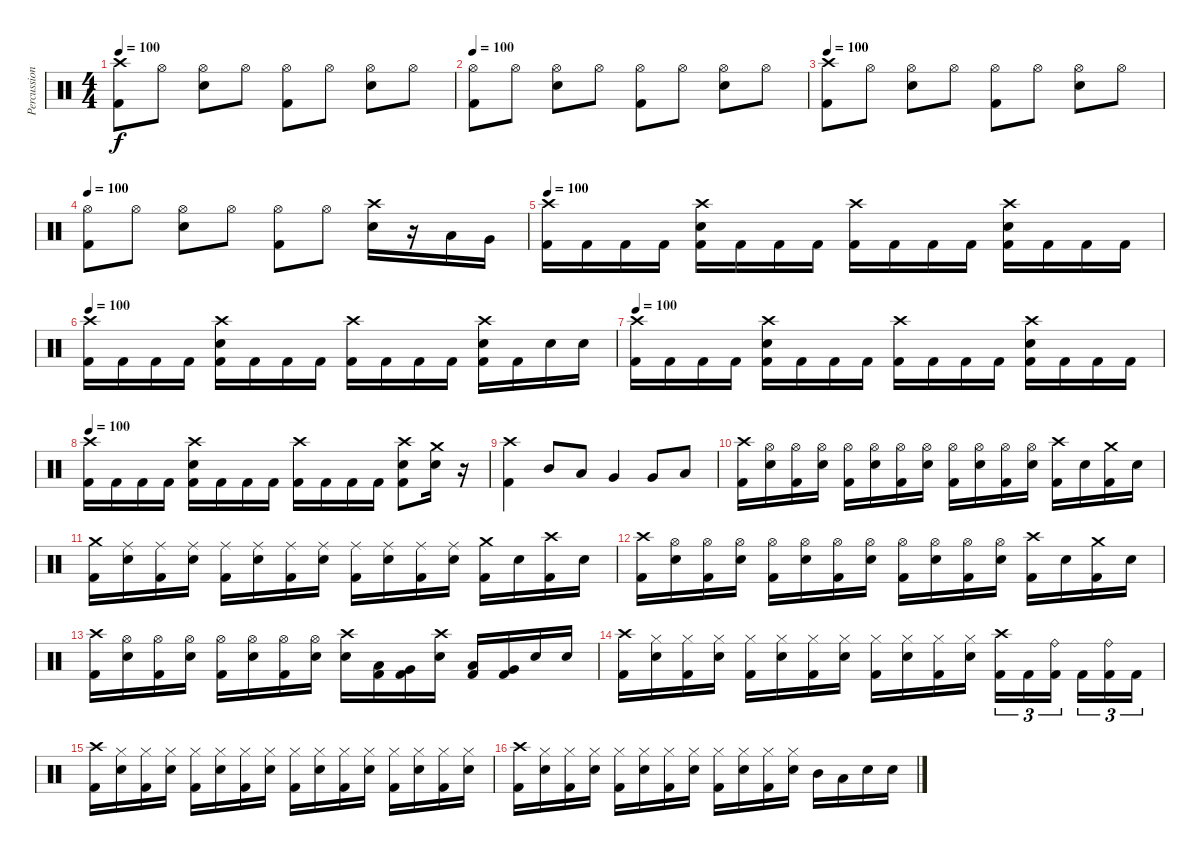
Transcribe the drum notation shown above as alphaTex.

\track ("Percussion" "Percussion") {instrument percussion}
\staff {score}
\articulation defaults
\ts (4 4)
\tempo 100
\clef neutral
\ks c
("Crash high (hit)" "Kick (hit) 2").8{dy f} "Hi-Hat (open)".8 ("Hi-Hat (open)" "Snare (hit) 2").8 "Hi-Hat (open)".8 ("Hi-Hat (open)" "Kick (hit) 2").8 "Hi-Hat (open)".8 ("Hi-Hat (open)" "Snare (hit) 2").8 "Hi-Hat (open)".8 |
\tempo 100
("Hi-Hat (open)" "Kick (hit) 2").8 "Hi-Hat (open)".8 ("Hi-Hat (open)" "Snare (hit) 2").8 "Hi-Hat (open)".8 ("Hi-Hat (open)" "Kick (hit) 2").8 "Hi-Hat (open)".8 ("Hi-Hat (open)" "Snare (hit) 2").8 "Hi-Hat (open)".8 |
\tempo 100
("Crash high (hit)" "Kick (hit) 2").8 "Hi-Hat (open)".8 ("Hi-Hat (open)" "Snare (hit) 2").8 "Hi-Hat (open)".8 ("Hi-Hat (open)" "Kick (hit) 2").8 "Hi-Hat (open)".8 ("Hi-Hat (open)" "Snare (hit) 2").8 "Hi-Hat (open)".8 |
\tempo 100
("Hi-Hat (open)" "Kick (hit) 2").8 "Hi-Hat (open)".8 ("Hi-Hat (open)" "Snare (hit) 2").8 "Hi-Hat (open)".8 ("Hi-Hat (open)" "Kick (hit) 2").8 "Hi-Hat (open)".8 ("Crash high (hit)" "Snare (hit) 2").16 r.16 "Low Tom (hit)".16 "Very Low Tom (hit)".16 |
\tempo 100
("Crash high (hit)" "Kick (hit) 2").16 "Kick (hit) 2".16 "Kick (hit) 2".16 "Kick (hit) 2".16 ("Crash high (hit)" "Snare (hit) 2" "Kick (hit) 2").16 "Kick (hit) 2".16 "Kick (hit) 2".16 "Kick (hit) 2".16 ("Crash high (hit)" "Kick (hit) 2").16 "Kick (hit) 2".16 "Kick (hit) 2".16 "Kick (hit) 2".16 ("Crash high (hit)" "Snare (hit) 2" "Kick (hit) 2").16 "Kick (hit) 2".16 "Kick (hit) 2".16 "Kick (hit) 2".16 |
\tempo 100
("Crash high (hit)" "Kick (hit) 2").16 "Kick (hit) 2".16 "Kick (hit) 2".16 "Kick (hit) 2".16 ("Crash high (hit)" "Snare (hit) 2" "Kick (hit) 2").16 "Kick (hit) 2".16 "Kick (hit) 2".16 "Kick (hit) 2".16 ("Crash high (hit)" "Kick (hit) 2").16 "Kick (hit) 2".16 "Kick (hit) 2".16 "Kick (hit) 2".16 ("Crash high (hit)" "Snare (hit) 2" "Kick (hit) 2").16 "Kick (hit) 2".16 "Snare (hit) 2".16 "Snare (hit) 2".16 |
\tempo 100
("Crash high (hit)" "Kick (hit) 2").16 "Kick (hit) 2".16 "Kick (hit) 2".16 "Kick (hit) 2".16 ("Crash high (hit)" "Snare (hit) 2" "Kick (hit) 2").16 "Kick (hit) 2".16 "Kick (hit) 2".16 "Kick (hit) 2".16 ("Crash high (hit)" "Kick (hit) 2").16 "Kick (hit) 2".16 "Kick (hit) 2".16 "Kick (hit) 2".16 ("Crash high (hit)" "Snare (hit) 2" "Kick (hit) 2").16 "Kick (hit) 2".16 "Kick (hit) 2".16 "Kick (hit) 2".16 |
\tempo 100
("Crash high (hit)" "Kick (hit) 2").16 "Kick (hit) 2".16 "Kick (hit) 2".16 "Kick (hit) 2".16 ("Crash high (hit)" "Snare (hit) 2" "Kick (hit) 2").16 "Kick (hit) 2".16 "Kick (hit) 2".16 "Kick (hit) 2".16 ("Crash high (hit)" "Kick (hit) 2").16 "Kick (hit) 2".16 "Kick (hit) 2".16 "Kick (hit) 2".16 ("Crash high (hit)" "Snare (hit) 2" "Kick (hit) 2").8 ("Crash medium (hit)" "Snare (hit) 2").16 r.16 |
("Crash high (hit)" "Kick (hit) 2").4 "Mid Tom (hit)".8 "Low Tom (hit)".8 "Very Low Tom (hit)".4 "Very Low Tom (hit)".8 "Low Floor Tom (hit)".8 |
("Crash high (hit)" "Kick (hit) 2").16 ("Hi-Hat (open)" "Snare (hit) 2").16 ("Hi-Hat (open)" "Kick (hit) 2").16 ("Hi-Hat (open)" "Snare (hit) 2").16 ("Hi-Hat (open)" "Kick (hit) 2").16 ("Hi-Hat (open)" "Snare (hit) 2").16 ("Hi-Hat (open)" "Kick (hit) 2").16 ("Hi-Hat (open)" "Snare (hit) 2").16 ("Hi-Hat (open)" "Kick (hit) 2").16 ("Hi-Hat (open)" "Snare (hit) 2").16 ("Hi-Hat (open)" "Kick (hit) 2").16 ("Hi-Hat (open)" "Snare (hit) 2").16 ("Crash high (hit)" "Kick (hit) 2").16 "Snare (hit) 2".16 ("Crash medium (hit)" "Kick (hit) 2").16 "Snare (hit) 2".16 |
("Crash medium (hit)" "Kick (hit) 2").16 ("Ride (middle)" "Snare (hit) 2").16 ("Ride (middle)" "Kick (hit) 2").16 ("Ride (middle)" "Snare (hit) 2").16 ("Ride (middle)" "Kick (hit) 2").16 ("Ride (middle)" "Snare (hit) 2").16 ("Ride (middle)" "Kick (hit) 2").16 ("Ride (middle)" "Snare (hit) 2").16 ("Ride (middle)" "Kick (hit) 2").16 ("Ride (middle)" "Snare (hit) 2").16 ("Ride (middle)" "Kick (hit) 2").16 ("Ride (middle)" "Snare (hit) 2").16 ("Crash medium (hit)" "Kick (hit) 2").16 "Snare (hit) 2".16 ("Crash high (hit)" "Kick (hit) 2").16 "Snare (hit) 2".16 |
("Crash high (hit)" "Kick (hit) 2").16 ("Hi-Hat (open)" "Snare (hit) 2").16 ("Hi-Hat (open)" "Kick (hit) 2").16 ("Hi-Hat (open)" "Snare (hit) 2").16 ("Hi-Hat (open)" "Kick (hit) 2").16 ("Hi-Hat (open)" "Snare (hit) 2").16 ("Hi-Hat (open)" "Kick (hit) 2").16 ("Hi-Hat (open)" "Snare (hit) 2").16 ("Hi-Hat (open)" "Kick (hit) 2").16 ("Hi-Hat (open)" "Snare (hit) 2").16 ("Hi-Hat (open)" "Kick (hit) 2").16 ("Hi-Hat (open)" "Snare (hit) 2").16 ("Crash high (hit)" "Kick (hit) 2").16 "Snare (hit) 2".16 ("Crash medium (hit)" "Kick (hit) 2").16 "Snare (hit) 2".16 |
("Crash high (hit)" "Kick (hit) 2").16 ("Hi-Hat (open)" "Snare (hit) 2").16 ("Hi-Hat (open)" "Kick (hit) 2").16 ("Hi-Hat (open)" "Snare (hit) 2").16 ("Hi-Hat (open)" "Kick (hit) 2").16 ("Hi-Hat (open)" "Snare (hit) 2").16 ("Hi-Hat (open)" "Kick (hit) 2").16 ("Hi-Hat (open)" "Snare (hit) 2").16 ("Crash high (hit)" "Snare (hit) 2").16 ("Low Tom (hit)" "Kick (hit) 2").16 ("Very Low Tom (hit)" "Kick (hit) 2").16 ("Crash high (hit)" "Snare (hit) 2").16 ("Low Tom (hit)" "Kick (hit) 2").16 ("Very Low Tom (hit)" "Kick (hit) 2").16 "Snare (hit) 2".16 "Snare (hit) 2".16 |
("Crash high (hit)" "Kick (hit) 2").16 ("Hi-Hat (closed)" "Snare (hit) 2").16 ("Hi-Hat (closed)" "Kick (hit) 2").16 ("Hi-Hat (closed)" "Snare (hit) 2").16 ("Hi-Hat (closed)" "Kick (hit) 2").16 ("Hi-Hat (closed)" "Snare (hit) 2").16 ("Hi-Hat (closed)" "Kick (hit) 2").16 ("Hi-Hat (closed)" "Snare (hit) 2").16 ("Hi-Hat (closed)" "Kick (hit) 2").16 ("Hi-Hat (closed)" "Snare (hit) 2").16 ("Hi-Hat (closed)" "Kick (hit) 2").16 ("Hi-Hat (closed)" "Snare (hit) 2").16 ("Crash high (hit)" "Kick (hit) 2").16{tu (3 2)} "Kick (hit) 2".16{tu (3 2)} ("Ride (bell)" "Kick (hit) 2").16{tu (3 2) beam splitsecondary} "Kick (hit) 2".16{tu (3 2)} ("Ride (bell)" "Kick (hit) 2").16{tu (3 2)} "Kick (hit) 2".16{tu (3 2)} |
("Crash high (hit)" "Kick (hit) 2").16 ("Hi-Hat (closed)" "Snare (hit) 2").16 ("Hi-Hat (closed)" "Kick (hit) 2").16 ("Hi-Hat (closed)" "Snare (hit) 2").16 ("Hi-Hat (closed)" "Kick (hit) 2").16 ("Hi-Hat (closed)" "Snare (hit) 2").16 ("Hi-Hat (closed)" "Kick (hit) 2").16 ("Hi-Hat (closed)" "Snare (hit) 2").16 ("Hi-Hat (closed)" "Kick (hit) 2").16 ("Hi-Hat (closed)" "Snare (hit) 2").16 ("Hi-Hat (closed)" "Kick (hit) 2").16 ("Hi-Hat (closed)" "Snare (hit) 2").16 ("Hi-Hat (closed)" "Kick (hit) 2").16 ("Hi-Hat (closed)" "Snare (hit) 2").16 ("Hi-Hat (closed)" "Kick (hit) 2").16 ("Hi-Hat (closed)" "Snare (hit) 2").16 |
("Crash high (hit)" "Kick (hit) 2").16 ("Hi-Hat (closed)" "Snare (hit) 2").16 ("Hi-Hat (closed)" "Kick (hit) 2").16 ("Hi-Hat (closed)" "Snare (hit) 2").16 ("Hi-Hat (closed)" "Kick (hit) 2").16 ("Hi-Hat (closed)" "Snare (hit) 2").16 ("Hi-Hat (closed)" "Kick (hit) 2").16 ("Hi-Hat (closed)" "Snare (hit) 2").16 ("Hi-Hat (closed)" "Kick (hit) 2").16 ("Hi-Hat (closed)" "Snare (hit) 2").16 ("Hi-Hat (closed)" "Kick (hit) 2").16 ("Hi-Hat (closed)" "Snare (hit) 2").16 "Mid Tom (hit)".16 "Low Tom (hit)".16 "Snare (hit) 2".16 "Snare (hit) 2".16
